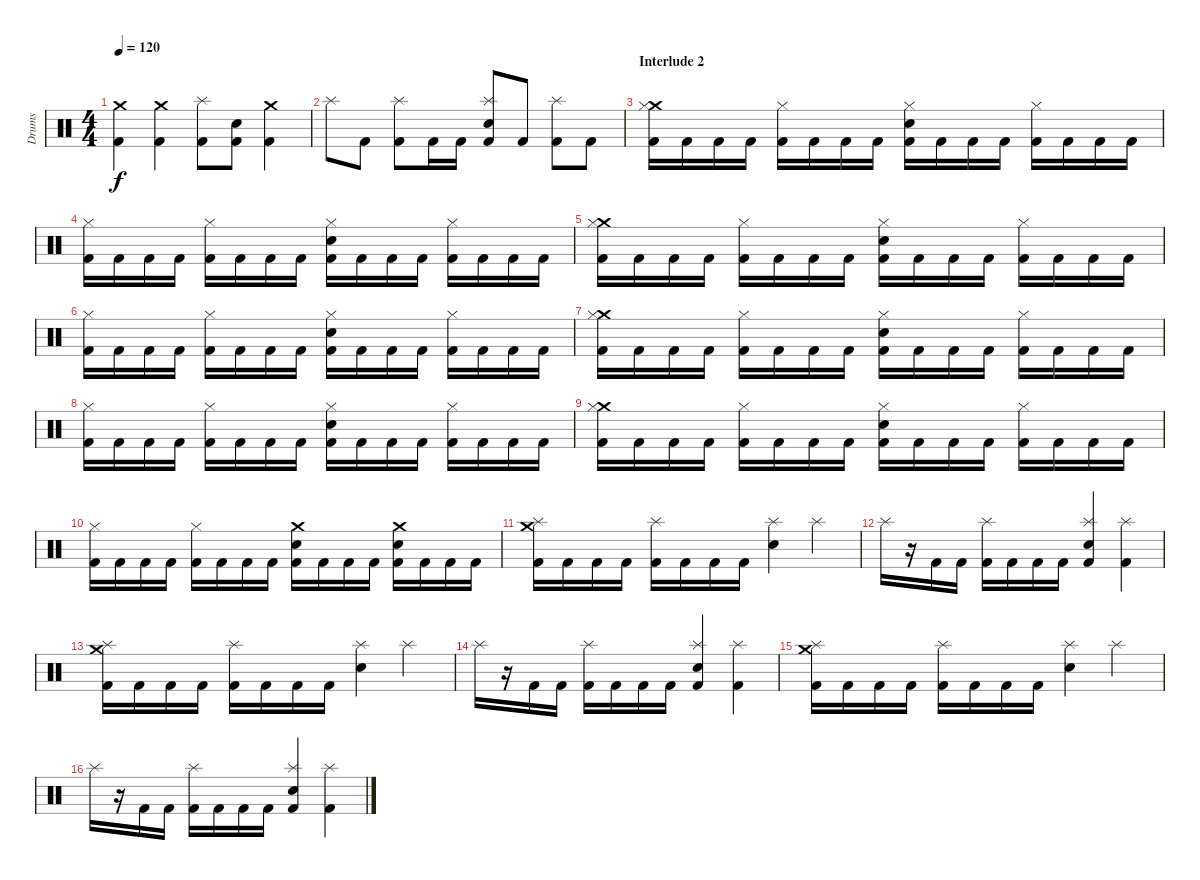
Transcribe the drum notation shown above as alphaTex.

\track ("Drums" "Drums") {instrument percussion}
\staff {score}
\articulation defaults
\ts (4 4)
\tempo 120
\clef neutral
\ks c
("Crash medium (hit)" "Kick (hit) 2").4{dy f} ("Crash medium (hit)" "Kick (hit) 2").4 ("Splash (hit)" "Kick (hit) 2").8 ("Snare (hit) 2" "Kick (hit) 2").8 ("Crash medium (hit)" "Kick (hit) 2").4 |
"Splash (hit)".8 "Kick (hit) 2".8 ("Splash (hit)" "Kick (hit) 2").8 "Kick (hit) 2".16 "Kick (hit) 2".16 ("Snare (hit) 2" "Splash (hit)" "Kick (hit) 2").8 "Kick (hit) 2".8 ("Splash (hit)" "Kick (hit) 2").8 "Kick (hit) 2".8 |
\section ("" "Interlude 2")
("Kick (hit) 2" "Crash medium (hit)" "Hi-Hat (closed)").16 "Kick (hit) 2".16 "Kick (hit) 2".16 "Kick (hit) 2".16 ("Kick (hit) 2" "Hi-Hat (closed)").16 "Kick (hit) 2".16 "Kick (hit) 2".16 "Kick (hit) 2".16 ("Kick (hit) 2" "Snare (hit) 2" "Hi-Hat (closed)").16 "Kick (hit) 2".16 "Kick (hit) 2".16 "Kick (hit) 2".16 ("Kick (hit) 2" "Hi-Hat (closed)").16 "Kick (hit) 2".16 "Kick (hit) 2".16 "Kick (hit) 2".16 |
("Kick (hit) 2" "Hi-Hat (closed)").16 "Kick (hit) 2".16 "Kick (hit) 2".16 "Kick (hit) 2".16 ("Kick (hit) 2" "Hi-Hat (closed)").16 "Kick (hit) 2".16 "Kick (hit) 2".16 "Kick (hit) 2".16 ("Kick (hit) 2" "Snare (hit) 2" "Hi-Hat (closed)").16 "Kick (hit) 2".16 "Kick (hit) 2".16 "Kick (hit) 2".16 ("Kick (hit) 2" "Hi-Hat (closed)").16 "Kick (hit) 2".16 "Kick (hit) 2".16 "Kick (hit) 2".16 |
("Kick (hit) 2" "Crash medium (hit)" "Hi-Hat (closed)").16 "Kick (hit) 2".16 "Kick (hit) 2".16 "Kick (hit) 2".16 ("Kick (hit) 2" "Hi-Hat (closed)").16 "Kick (hit) 2".16 "Kick (hit) 2".16 "Kick (hit) 2".16 ("Kick (hit) 2" "Snare (hit) 2" "Hi-Hat (closed)").16 "Kick (hit) 2".16 "Kick (hit) 2".16 "Kick (hit) 2".16 ("Kick (hit) 2" "Hi-Hat (closed)").16 "Kick (hit) 2".16 "Kick (hit) 2".16 "Kick (hit) 2".16 |
("Kick (hit) 2" "Hi-Hat (closed)").16 "Kick (hit) 2".16 "Kick (hit) 2".16 "Kick (hit) 2".16 ("Kick (hit) 2" "Hi-Hat (closed)").16 "Kick (hit) 2".16 "Kick (hit) 2".16 "Kick (hit) 2".16 ("Kick (hit) 2" "Snare (hit) 2" "Hi-Hat (closed)").16 "Kick (hit) 2".16 "Kick (hit) 2".16 "Kick (hit) 2".16 ("Kick (hit) 2" "Hi-Hat (closed)").16 "Kick (hit) 2".16 "Kick (hit) 2".16 "Kick (hit) 2".16 |
("Kick (hit) 2" "Crash medium (hit)" "Hi-Hat (closed)").16 "Kick (hit) 2".16 "Kick (hit) 2".16 "Kick (hit) 2".16 ("Kick (hit) 2" "Hi-Hat (closed)").16 "Kick (hit) 2".16 "Kick (hit) 2".16 "Kick (hit) 2".16 ("Kick (hit) 2" "Snare (hit) 2" "Hi-Hat (closed)").16 "Kick (hit) 2".16 "Kick (hit) 2".16 "Kick (hit) 2".16 ("Kick (hit) 2" "Hi-Hat (closed)").16 "Kick (hit) 2".16 "Kick (hit) 2".16 "Kick (hit) 2".16 |
("Kick (hit) 2" "Hi-Hat (closed)").16 "Kick (hit) 2".16 "Kick (hit) 2".16 "Kick (hit) 2".16 ("Kick (hit) 2" "Hi-Hat (closed)").16 "Kick (hit) 2".16 "Kick (hit) 2".16 "Kick (hit) 2".16 ("Kick (hit) 2" "Snare (hit) 2" "Hi-Hat (closed)").16 "Kick (hit) 2".16 "Kick (hit) 2".16 "Kick (hit) 2".16 ("Kick (hit) 2" "Hi-Hat (closed)").16 "Kick (hit) 2".16 "Kick (hit) 2".16 "Kick (hit) 2".16 |
("Kick (hit) 2" "Crash medium (hit)" "Hi-Hat (closed)").16 "Kick (hit) 2".16 "Kick (hit) 2".16 "Kick (hit) 2".16 ("Kick (hit) 2" "Hi-Hat (closed)").16 "Kick (hit) 2".16 "Kick (hit) 2".16 "Kick (hit) 2".16 ("Kick (hit) 2" "Snare (hit) 2" "Hi-Hat (closed)").16 "Kick (hit) 2".16 "Kick (hit) 2".16 "Kick (hit) 2".16 ("Kick (hit) 2" "Hi-Hat (closed)").16 "Kick (hit) 2".16 "Kick (hit) 2".16 "Kick (hit) 2".16 |
("Kick (hit) 2" "Hi-Hat (closed)").16 "Kick (hit) 2".16 "Kick (hit) 2".16 "Kick (hit) 2".16 ("Kick (hit) 2" "Hi-Hat (closed)").16 "Kick (hit) 2".16 "Kick (hit) 2".16 "Kick (hit) 2".16 ("Kick (hit) 2" "Snare (hit) 2" "Crash medium (hit)").16 "Kick (hit) 2".16 "Kick (hit) 2".16 "Kick (hit) 2".16 ("Kick (hit) 2" "Snare (hit) 2" "Crash medium (hit)").16 "Kick (hit) 2".16 "Kick (hit) 2".16 "Kick (hit) 2".16 |
("Kick (hit) 2" "Crash medium (hit)" "Splash (hit)").16 "Kick (hit) 2".16 "Kick (hit) 2".16 "Kick (hit) 2".16 ("Kick (hit) 2" "Splash (hit)").16 "Kick (hit) 2".16 "Kick (hit) 2".16 "Kick (hit) 2".16 ("Snare (hit) 2" "Splash (hit)").4 "Splash (hit)".4 |
"Splash (hit)".16 r.16 "Kick (hit) 2".16 "Kick (hit) 2".16 ("Kick (hit) 2" "Splash (hit)").16 "Kick (hit) 2".16 "Kick (hit) 2".16 "Kick (hit) 2".16 ("Kick (hit) 2" "Snare (hit) 2" "Splash (hit)").4 ("Kick (hit) 2" "Splash (hit)").4 |
("Kick (hit) 2" "Crash medium (hit)" "Splash (hit)").16 "Kick (hit) 2".16 "Kick (hit) 2".16 "Kick (hit) 2".16 ("Kick (hit) 2" "Splash (hit)").16 "Kick (hit) 2".16 "Kick (hit) 2".16 "Kick (hit) 2".16 ("Snare (hit) 2" "Splash (hit)").4 "Splash (hit)".4 |
"Splash (hit)".16 r.16 "Kick (hit) 2".16 "Kick (hit) 2".16 ("Kick (hit) 2" "Splash (hit)").16 "Kick (hit) 2".16 "Kick (hit) 2".16 "Kick (hit) 2".16 ("Kick (hit) 2" "Snare (hit) 2" "Splash (hit)").4 ("Kick (hit) 2" "Splash (hit)").4 |
("Kick (hit) 2" "Crash medium (hit)" "Splash (hit)").16 "Kick (hit) 2".16 "Kick (hit) 2".16 "Kick (hit) 2".16 ("Kick (hit) 2" "Splash (hit)").16 "Kick (hit) 2".16 "Kick (hit) 2".16 "Kick (hit) 2".16 ("Snare (hit) 2" "Splash (hit)").4 "Splash (hit)".4 |
"Splash (hit)".16 r.16 "Kick (hit) 2".16 "Kick (hit) 2".16 ("Kick (hit) 2" "Splash (hit)").16 "Kick (hit) 2".16 "Kick (hit) 2".16 "Kick (hit) 2".16 ("Kick (hit) 2" "Snare (hit) 2" "Splash (hit)").4 ("Kick (hit) 2" "Splash (hit)").4
